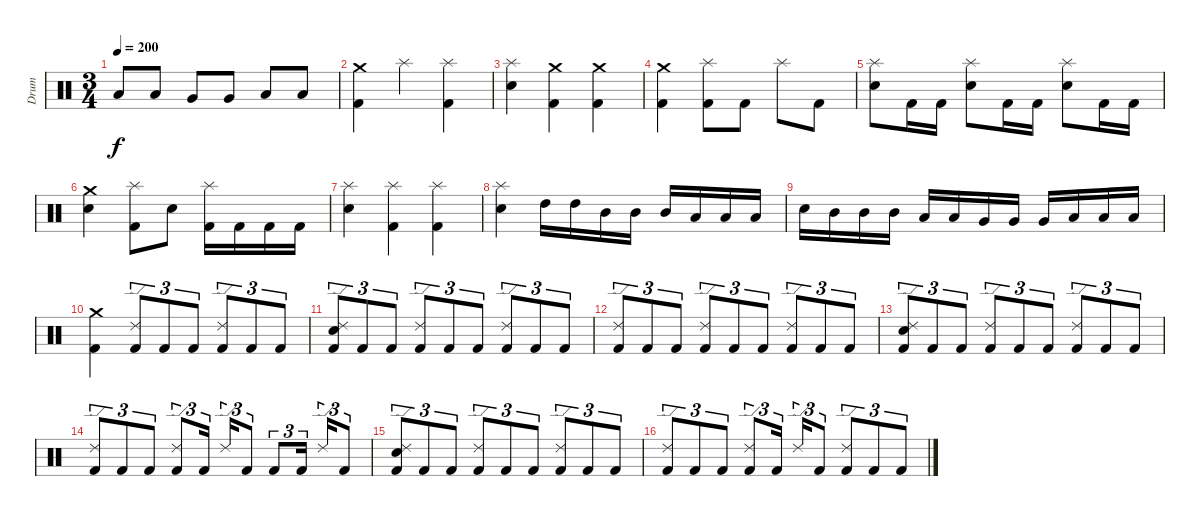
\track ("Drum" "Drum") {instrument percussion}
\staff {score}
\articulation defaults
\ts (3 4)
\tempo 200
\clef neutral
\ks c "Low Tom (hit)".8{dy f} "Low Tom (hit)".8 "Very Low Tom (hit)".8 "Very Low Tom (hit)".8 "Low Floor Tom (hit)".8 "Low Floor Tom (hit)".8
|
("Crash medium (hit)" "Kick (hit) 2").4 "Splash (hit)".4 ("Splash (hit)" "Kick (hit) 2").4 |
("Splash (hit)" "Electric Snare (hit)").4 ("Crash medium (hit)" "Kick (hit) 2").4 ("Crash medium (hit)" "Kick (hit) 2").4 |
("Crash medium (hit)" "Kick (hit) 2").4 ("Splash (hit)" "Kick (hit) 2").8 "Kick (hit) 2".8 "Splash (hit)".8 "Kick (hit) 2".8 |
("Splash (hit)" "Electric Snare (hit)").8 "Kick (hit) 2".16 "Kick (hit) 2".16 ("Splash (hit)" "Electric Snare (hit)").8 "Kick (hit) 2".16 "Kick (hit) 2".16 ("Splash (hit)" "Electric Snare (hit)").8 "Kick (hit) 2".16 "Kick (hit) 2".16 |
("Crash medium (hit)" "Electric Snare (hit)").4 ("Splash (hit)" "Kick (hit) 2").8 "Electric Snare (hit)".8 ("Splash (hit)" "Kick (hit) 2").16 "Kick (hit) 2".16 "Kick (hit) 2".16 "Kick (hit) 2".16 |
("Splash (hit)" "Electric Snare (hit)").4 ("Splash (hit)" "Kick (hit) 2").4 ("Splash (hit)" "Kick (hit) 2").4 |
("Splash (hit)" "Electric Snare (hit)").4 "High Tom (hit)".16 "High Tom (hit)".16 "Mid Tom (hit)".16 "Mid Tom (hit)".16 "Mid Tom (hit)".16 "Low Tom (hit)".16 "Low Tom (hit)".16 "Low Tom (hit)".16 |
"Electric Snare (hit)".16 "Mid Tom (hit)".16 "Mid Tom (hit)".16 "Mid Tom (hit)".16 "Low Tom (hit)".16 "Low Tom (hit)".16 "Very Low Tom (hit)".16 "Very Low Tom (hit)".16 "Very Low Tom (hit)".16 "Low Floor Tom (hit)".16 "Low Floor Tom (hit)".16 "Low Floor Tom (hit)".16 |
("Crash medium (hit)" "Kick (hit) 2").4 ("Ride (edge) 2" "Kick (hit) 2").8{tu (3 2)} "Kick (hit) 2".8{tu (3 2)} "Kick (hit) 2".8{tu (3 2)} ("Ride (edge) 2" "Kick (hit) 2").8{tu (3 2)} "Kick (hit) 2".8{tu (3 2)} "Kick (hit) 2".8{tu (3 2)} |
("Ride (edge) 2" "Electric Snare (hit)" "Kick (hit) 2").8{tu (3 2)} "Kick (hit) 2".8{tu (3 2)} "Kick (hit) 2".8{tu (3 2)} ("Ride (edge) 2" "Kick (hit) 2").8{tu (3 2)} "Kick (hit) 2".8{tu (3 2)} "Kick (hit) 2".8{tu (3 2)} ("Ride (edge) 2" "Kick (hit) 2").8{tu (3 2)} "Kick (hit) 2".8{tu (3 2)} "Kick (hit) 2".8{tu (3 2)} |
("Ride (edge) 2" "Kick (hit) 2").8{tu (3 2)} "Kick (hit) 2".8{tu (3 2)} "Kick (hit) 2".8{tu (3 2)} ("Ride (edge) 2" "Kick (hit) 2").8{tu (3 2)} "Kick (hit) 2".8{tu (3 2)} "Kick (hit) 2".8{tu (3 2)} ("Ride (edge) 2" "Kick (hit) 2").8{tu (3 2)} "Kick (hit) 2".8{tu (3 2)} "Kick (hit) 2".8{tu (3 2)} |
("Ride (edge) 2" "Electric Snare (hit)" "Kick (hit) 2").8{tu (3 2)} "Kick (hit) 2".8{tu (3 2)} "Kick (hit) 2".8{tu (3 2)} ("Ride (edge) 2" "Kick (hit) 2").8{tu (3 2)} "Kick (hit) 2".8{tu (3 2)} "Kick (hit) 2".8{tu (3 2)} ("Ride (edge) 2" "Kick (hit) 2").8{tu (3 2)} "Kick (hit) 2".8{tu (3 2)} "Kick (hit) 2".8{tu (3 2)} |
("Ride (edge) 2" "Kick (hit) 2").8{tu (3 2)} "Kick (hit) 2".8{tu (3 2)} "Kick (hit) 2".8{tu (3 2)} ("Ride (edge) 2" "Kick (hit) 2").8{tu (3 2)} "Kick (hit) 2".16{tu (3 2)} "Ride (edge) 2".16{tu (3 2)} "Kick (hit) 2".8{tu (3 2)} "Kick (hit) 2".8{tu (3 2)} "Kick (hit) 2".16{tu (3 2)} "Ride (edge) 2".16{tu (3 2)} "Kick (hit) 2".8{tu (3 2)} |
("Ride (edge) 2" "Electric Snare (hit)" "Kick (hit) 2").8{tu (3 2)} "Kick (hit) 2".8{tu (3 2)} "Kick (hit) 2".8{tu (3 2)} ("Ride (edge) 2" "Kick (hit) 2").8{tu (3 2)} "Kick (hit) 2".8{tu (3 2)} "Kick (hit) 2".8{tu (3 2)} ("Ride (edge) 2" "Kick (hit) 2").8{tu (3 2)} "Kick (hit) 2".8{tu (3 2)} "Kick (hit) 2".8{tu (3 2)} |
("Ride (edge) 2" "Kick (hit) 2").8{tu (3 2)} "Kick (hit) 2".8{tu (3 2)} "Kick (hit) 2".8{tu (3 2)} ("Ride (edge) 2" "Kick (hit) 2").8{tu (3 2)} "Kick (hit) 2".16{tu (3 2)} "Ride (edge) 2".16{tu (3 2)} "Kick (hit) 2".8{tu (3 2)} ("Ride (edge) 2" "Kick (hit) 2").8{tu (3 2)} "Kick (hit) 2".8{tu (3 2)} "Kick (hit) 2".8{tu (3 2)}
